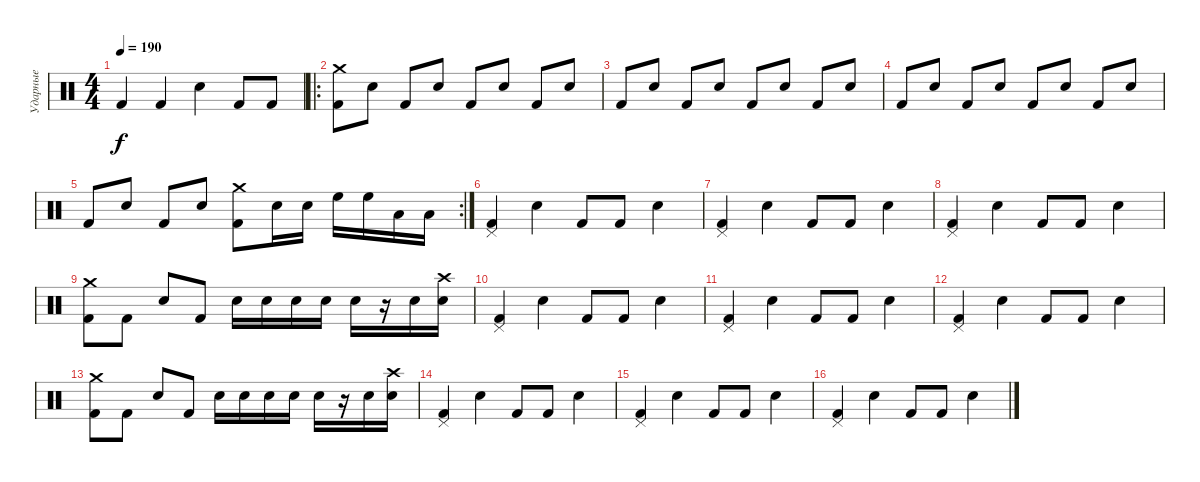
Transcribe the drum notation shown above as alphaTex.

\track ("Ударные" "Ударные") {instrument percussion}
\staff {score}
\articulation defaults
\ts (4 4)
\tempo 190
\clef neutral
\ks c "Kick (hit) 2".4{dy f} "Kick (hit) 2".4 "Electric Snare (hit)".4 "Kick (hit) 2".8 "Kick (hit) 2".8
|
\ro
("Kick (hit) 2" "Crash medium (hit)").8 "Electric Snare (hit)".8 "Kick (hit) 2".8 "Electric Snare (hit)".8 "Kick (hit) 2".8 "Electric Snare (hit)".8 "Kick (hit) 2".8 "Electric Snare (hit)".8 |
"Kick (hit) 2".8 "Electric Snare (hit)".8 "Kick (hit) 2".8 "Electric Snare (hit)".8 "Kick (hit) 2".8 "Electric Snare (hit)".8 "Kick (hit) 2".8 "Electric Snare (hit)".8 |
"Kick (hit) 2".8 "Electric Snare (hit)".8 "Kick (hit) 2".8 "Electric Snare (hit)".8 "Kick (hit) 2".8 "Electric Snare (hit)".8 "Kick (hit) 2".8 "Electric Snare (hit)".8 |
\rc 2 "Kick (hit) 2".8 "Electric Snare (hit)".8 "Kick (hit) 2".8 "Electric Snare (hit)".8
("Kick (hit) 2" "Crash medium (hit)").8 "Electric Snare (hit)".16 "Electric Snare (hit)".16 "High Floor Tom (hit)".16 "High Floor Tom (hit)".16 "Low Tom (hit)".16 "Low Tom (hit)".16 |
("Pedal Hi-Hat (hit)" "Kick (hit) 2").4 "Electric Snare (hit)".4 "Kick (hit) 2".8 "Kick (hit) 2".8 "Electric Snare (hit)".4 |
("Pedal Hi-Hat (hit)" "Kick (hit) 2").4 "Electric Snare (hit)".4 "Kick (hit) 2".8 "Kick (hit) 2".8 "Electric Snare (hit)".4 |
("Pedal Hi-Hat (hit)" "Kick (hit) 2").4 "Electric Snare (hit)".4 "Kick (hit) 2".8 "Kick (hit) 2".8 "Electric Snare (hit)".4 |
("Crash medium (hit)" "Kick (hit) 2").8 "Kick (hit) 2".8 "Electric Snare (hit)".8 "Kick (hit) 2".8 "Electric Snare (hit)".16 "Electric Snare (hit)".16 "Electric Snare (hit)".16 "Electric Snare (hit)".16 "Electric Snare (hit)".16 r.16 "Electric Snare (hit)".16 ("Electric Snare (hit)" "Crash high (hit)").16 |
("Pedal Hi-Hat (hit)" "Kick (hit) 2").4 "Electric Snare (hit)".4 "Kick (hit) 2".8 "Kick (hit) 2".8 "Electric Snare (hit)".4 |
("Pedal Hi-Hat (hit)" "Kick (hit) 2").4 "Electric Snare (hit)".4 "Kick (hit) 2".8 "Kick (hit) 2".8 "Electric Snare (hit)".4 |
("Pedal Hi-Hat (hit)" "Kick (hit) 2").4 "Electric Snare (hit)".4 "Kick (hit) 2".8 "Kick (hit) 2".8 "Electric Snare (hit)".4 |
("Crash medium (hit)" "Kick (hit) 2").8 "Kick (hit) 2".8 "Electric Snare (hit)".8 "Kick (hit) 2".8 "Electric Snare (hit)".16 "Electric Snare (hit)".16 "Electric Snare (hit)".16 "Electric Snare (hit)".16 "Electric Snare (hit)".16 r.16 "Electric Snare (hit)".16 ("Electric Snare (hit)" "Crash high (hit)").16 |
("Pedal Hi-Hat (hit)" "Kick (hit) 2").4 "Electric Snare (hit)".4 "Kick (hit) 2".8 "Kick (hit) 2".8 "Electric Snare (hit)".4 |
("Pedal Hi-Hat (hit)" "Kick (hit) 2").4 "Electric Snare (hit)".4 "Kick (hit) 2".8 "Kick (hit) 2".8 "Electric Snare (hit)".4 |
("Pedal Hi-Hat (hit)" "Kick (hit) 2").4 "Electric Snare (hit)".4 "Kick (hit) 2".8 "Kick (hit) 2".8 "Electric Snare (hit)".4
